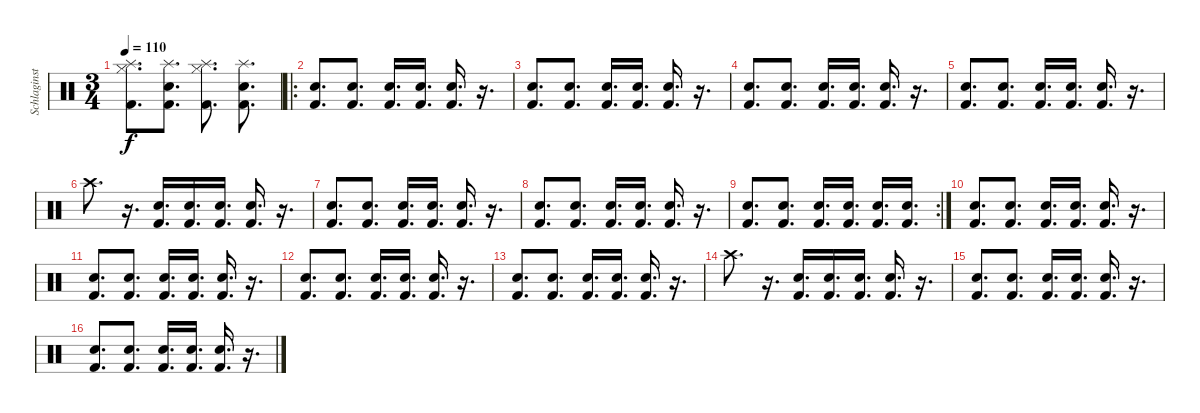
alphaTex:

\track ("Schlaginstrumente - Auswahl" "Schlaginst") {instrument percussion}
\staff {score}
\articulation defaults
\ts (3 4)
\tempo 110
\clef neutral
\ks c
("Splash (hit)" "Hi-Hat (closed)" "Kick (hit) 2").8{d dy f} ("Splash (hit)" "Electric Snare (hit)" "Kick (hit) 2").8{d} ("Splash (hit)" "Hi-Hat (closed)" "Kick (hit) 2").8{d} ("Splash (hit)" "Electric Snare (hit)" "Kick (hit) 2").8{d} |
\ro
("Electric Snare (hit)" "Kick (hit) 2").8{d} ("Snare (hit) 2" "Kick (hit) 2").8{d} ("Electric Snare (hit)" "Kick (hit) 2").16{d} ("Electric Snare (hit)" "Kick (hit) 2").16{d} ("Snare (hit) 2" "Kick (hit) 2").16{d} r.16{d} |
("Electric Snare (hit)" "Kick (hit) 2").8{d} ("Snare (hit) 2" "Kick (hit) 2").8{d} ("Electric Snare (hit)" "Kick (hit) 2").16{d} ("Electric Snare (hit)" "Kick (hit) 2").16{d} ("Snare (hit) 2" "Kick (hit) 2").16{d} r.16{d} |
("Electric Snare (hit)" "Kick (hit) 2").8{d} ("Snare (hit) 2" "Kick (hit) 2").8{d} ("Electric Snare (hit)" "Kick (hit) 2").16{d} ("Electric Snare (hit)" "Kick (hit) 2").16{d} ("Snare (hit) 2" "Kick (hit) 2").16{d} r.16{d} |
("Electric Snare (hit)" "Kick (hit) 2").8{d} ("Snare (hit) 2" "Kick (hit) 2").8{d} ("Electric Snare (hit)" "Kick (hit) 2").16{d} ("Electric Snare (hit)" "Kick (hit) 2").16{d} ("Snare (hit) 2" "Kick (hit) 2").16{d} r.16{d} |
"Crash high (hit)".8{d} r.16{d} ("Snare (hit) 2" "Kick (hit) 2").16{d} ("Electric Snare (hit)" "Kick (hit) 2").16{d} ("Electric Snare (hit)" "Kick (hit) 2").16{d} ("Snare (hit) 2" "Kick (hit) 2").16{d} r.16{d} |
("Electric Snare (hit)" "Kick (hit) 2").8{d} ("Snare (hit) 2" "Kick (hit) 2").8{d} ("Electric Snare (hit)" "Kick (hit) 2").16{d} ("Electric Snare (hit)" "Kick (hit) 2").16{d} ("Snare (hit) 2" "Kick (hit) 2").16{d} r.16{d} |
("Electric Snare (hit)" "Kick (hit) 2").8{d} ("Snare (hit) 2" "Kick (hit) 2").8{d} ("Electric Snare (hit)" "Kick (hit) 2").16{d} ("Electric Snare (hit)" "Kick (hit) 2").16{d} ("Snare (hit) 2" "Kick (hit) 2").16{d} r.16{d} |
\rc 2
("Electric Snare (hit)" "Kick (hit) 2").8{d} ("Snare (hit) 2" "Kick (hit) 2").8{d} ("Electric Snare (hit)" "Kick (hit) 2").16{d} ("Snare (hit) 2" "Kick (hit) 2").16{d} ("Electric Snare (hit)" "Kick (hit) 2").16{d} ("Snare (hit) 2" "Kick (hit) 2").16{d} |
("Electric Snare (hit)" "Kick (hit) 2").8{d} ("Snare (hit) 2" "Kick (hit) 2").8{d} ("Electric Snare (hit)" "Kick (hit) 2").16{d} ("Electric Snare (hit)" "Kick (hit) 2").16{d} ("Snare (hit) 2" "Kick (hit) 2").16{d} r.16{d} |
("Electric Snare (hit)" "Kick (hit) 2").8{d} ("Snare (hit) 2" "Kick (hit) 2").8{d} ("Electric Snare (hit)" "Kick (hit) 2").16{d} ("Electric Snare (hit)" "Kick (hit) 2").16{d} ("Snare (hit) 2" "Kick (hit) 2").16{d} r.16{d} |
("Electric Snare (hit)" "Kick (hit) 2").8{d} ("Snare (hit) 2" "Kick (hit) 2").8{d} ("Electric Snare (hit)" "Kick (hit) 2").16{d} ("Electric Snare (hit)" "Kick (hit) 2").16{d} ("Snare (hit) 2" "Kick (hit) 2").16{d} r.16{d} |
("Electric Snare (hit)" "Kick (hit) 2").8{d} ("Snare (hit) 2" "Kick (hit) 2").8{d} ("Electric Snare (hit)" "Kick (hit) 2").16{d} ("Electric Snare (hit)" "Kick (hit) 2").16{d} ("Snare (hit) 2" "Kick (hit) 2").16{d} r.16{d} |
"Crash high (hit)".8{d} r.16{d} ("Snare (hit) 2" "Kick (hit) 2").16{d} ("Electric Snare (hit)" "Kick (hit) 2").16{d} ("Electric Snare (hit)" "Kick (hit) 2").16{d} ("Snare (hit) 2" "Kick (hit) 2").16{d} r.16{d} |
("Electric Snare (hit)" "Kick (hit) 2").8{d} ("Snare (hit) 2" "Kick (hit) 2").8{d} ("Electric Snare (hit)" "Kick (hit) 2").16{d} ("Electric Snare (hit)" "Kick (hit) 2").16{d} ("Snare (hit) 2" "Kick (hit) 2").16{d} r.16{d} |
("Electric Snare (hit)" "Kick (hit) 2").8{d} ("Snare (hit) 2" "Kick (hit) 2").8{d} ("Electric Snare (hit)" "Kick (hit) 2").16{d} ("Electric Snare (hit)" "Kick (hit) 2").16{d} ("Snare (hit) 2" "Kick (hit) 2").16{d} r.16{d}
